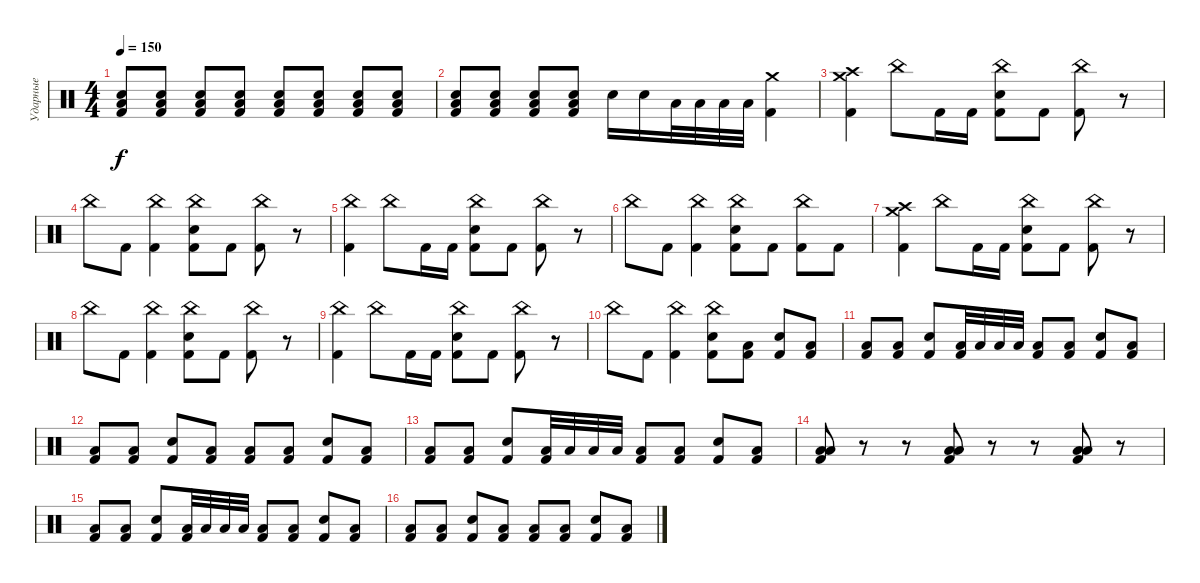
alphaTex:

\track ("Ударные" "Ударные") {instrument percussion}
\staff {score}
\articulation defaults
\ts (4 4)
\tempo 150
\clef neutral
\ks c
("Low Floor Tom (hit)" "Electric Snare (hit)" "Kick (hit) 2").8{dy f} ("Low Floor Tom (hit)" "Electric Snare (hit)" "Kick (hit) 2").8 ("Low Floor Tom (hit)" "Electric Snare (hit)" "Kick (hit) 2").8 ("Low Floor Tom (hit)" "Electric Snare (hit)" "Kick (hit) 2").8 ("Low Floor Tom (hit)" "Electric Snare (hit)" "Kick (hit) 2").8 ("Low Floor Tom (hit)" "Electric Snare (hit)" "Kick (hit) 2").8 ("Low Floor Tom (hit)" "Electric Snare (hit)" "Kick (hit) 2").8 ("Low Floor Tom (hit)" "Electric Snare (hit)" "Kick (hit) 2").8 |
("Low Floor Tom (hit)" "Electric Snare (hit)" "Kick (hit) 2").8 ("Low Floor Tom (hit)" "Electric Snare (hit)" "Kick (hit) 2").8 ("Low Floor Tom (hit)" "Electric Snare (hit)" "Kick (hit) 2").8 ("Low Floor Tom (hit)" "Electric Snare (hit)" "Kick (hit) 2").8 "Electric Snare (hit)".16 "Electric Snare (hit)".16 "Low Tom (hit)".32 "Low Tom (hit)".32 "Low Floor Tom (hit)".32 "Low Floor Tom (hit)".32 ("Crash medium (hit)" "Kick (hit) 2").4 |
("Crash medium (hit)" "Crash high (hit)" "Kick (hit) 2").4 "China (hit)".8 "Kick (hit) 2".16 "Kick (hit) 2".16 ("China (hit)" "Electric Snare (hit)" "Kick (hit) 2").8 "Kick (hit) 2".8 ("China (hit)" "Kick (hit) 2").8 r.8 |
"China (hit)".8 "Kick (hit) 2".8 ("China (hit)" "Kick (hit) 2").4 ("China (hit)" "Electric Snare (hit)" "Kick (hit) 2").8 "Kick (hit) 2".8 ("China (hit)" "Kick (hit) 2").8 r.8 |
("China (hit)" "Kick (hit) 2").4 "China (hit)".8 "Kick (hit) 2".16 "Kick (hit) 2".16 ("China (hit)" "Electric Snare (hit)" "Kick (hit) 2").8 "Kick (hit) 2".8 ("China (hit)" "Kick (hit) 2").8 r.8 |
"China (hit)".8 "Kick (hit) 2".8 ("China (hit)" "Kick (hit) 2").4 ("China (hit)" "Electric Snare (hit)" "Kick (hit) 2").8 "Kick (hit) 2".8 ("China (hit)" "Kick (hit) 2").8 "Kick (hit) 2".8 |
("Crash medium (hit)" "Crash high (hit)" "Kick (hit) 2").4 "China (hit)".8 "Kick (hit) 2".16 "Kick (hit) 2".16 ("China (hit)" "Electric Snare (hit)" "Kick (hit) 2").8 "Kick (hit) 2".8 ("China (hit)" "Kick (hit) 2").8 r.8 |
"China (hit)".8 "Kick (hit) 2".8 ("China (hit)" "Kick (hit) 2").4 ("China (hit)" "Electric Snare (hit)" "Kick (hit) 2").8 "Kick (hit) 2".8 ("China (hit)" "Kick (hit) 2").8 r.8 |
("China (hit)" "Kick (hit) 2").4 "China (hit)".8 "Kick (hit) 2".16 "Kick (hit) 2".16 ("China (hit)" "Electric Snare (hit)" "Kick (hit) 2").8 "Kick (hit) 2".8 ("China (hit)" "Kick (hit) 2").8 r.8 |
"China (hit)".8 "Kick (hit) 2".8 ("China (hit)" "Kick (hit) 2").4 ("China (hit)" "Electric Snare (hit)" "Kick (hit) 2").8 ("Low Tom (hit)" "Kick (hit) 2").8 ("Electric Snare (hit)" "Kick (hit) 2").8 ("Low Floor Tom (hit)" "Kick (hit) 2").8 |
("Low Tom (hit)" "Kick (hit) 2").8 ("Low Tom (hit)" "Kick (hit) 2").8 ("Electric Snare (hit)" "Kick (hit) 2").8 ("Low Tom (hit)" "Kick (hit) 2").32 "Low Tom (hit)".32 "Low Floor Tom (hit)".32 "Low Floor Tom (hit)".32 ("Low Tom (hit)" "Kick (hit) 2").8 ("Low Tom (hit)" "Kick (hit) 2").8 ("Electric Snare (hit)" "Kick (hit) 2").8 ("Low Floor Tom (hit)" "Kick (hit) 2").8 |
("Low Tom (hit)" "Kick (hit) 2").8 ("Low Tom (hit)" "Kick (hit) 2").8 ("Electric Snare (hit)" "Kick (hit) 2").8 ("Low Floor Tom (hit)" "Kick (hit) 2").8 ("Low Tom (hit)" "Kick (hit) 2").8 ("Low Tom (hit)" "Kick (hit) 2").8 ("Electric Snare (hit)" "Kick (hit) 2").8 ("Low Floor Tom (hit)" "Kick (hit) 2").8 |
("Low Tom (hit)" "Kick (hit) 2").8 ("Low Tom (hit)" "Kick (hit) 2").8 ("Electric Snare (hit)" "Kick (hit) 2").8 ("Low Tom (hit)" "Kick (hit) 2").32 "Low Tom (hit)".32 "Low Floor Tom (hit)".32 "Low Floor Tom (hit)".32 ("Low Tom (hit)" "Kick (hit) 2").8 ("Low Tom (hit)" "Kick (hit) 2").8 ("Electric Snare (hit)" "Kick (hit) 2").8 ("Low Floor Tom (hit)" "Kick (hit) 2").8 |
("Low Tom (hit)" "Low Floor Tom (hit)" "Kick (hit) 2").8 r.8 r.8 ("Low Tom (hit)" "Low Floor Tom (hit)" "Kick (hit) 2").8 r.8 r.8 ("Low Tom (hit)" "Low Floor Tom (hit)" "Kick (hit) 2").8 r.8 |
("Low Tom (hit)" "Kick (hit) 2").8 ("Low Tom (hit)" "Kick (hit) 2").8 ("Electric Snare (hit)" "Kick (hit) 2").8 ("Low Tom (hit)" "Kick (hit) 2").32 "Low Tom (hit)".32 "Low Floor Tom (hit)".32 "Low Floor Tom (hit)".32 ("Low Tom (hit)" "Kick (hit) 2").8 ("Low Tom (hit)" "Kick (hit) 2").8 ("Electric Snare (hit)" "Kick (hit) 2").8 ("Low Floor Tom (hit)" "Kick (hit) 2").8 |
("Low Tom (hit)" "Kick (hit) 2").8 ("Low Tom (hit)" "Kick (hit) 2").8 ("Electric Snare (hit)" "Kick (hit) 2").8 ("Low Floor Tom (hit)" "Kick (hit) 2").8 ("Low Tom (hit)" "Kick (hit) 2").8 ("Low Tom (hit)" "Kick (hit) 2").8 ("Electric Snare (hit)" "Kick (hit) 2").8 ("Low Floor Tom (hit)" "Kick (hit) 2").8
